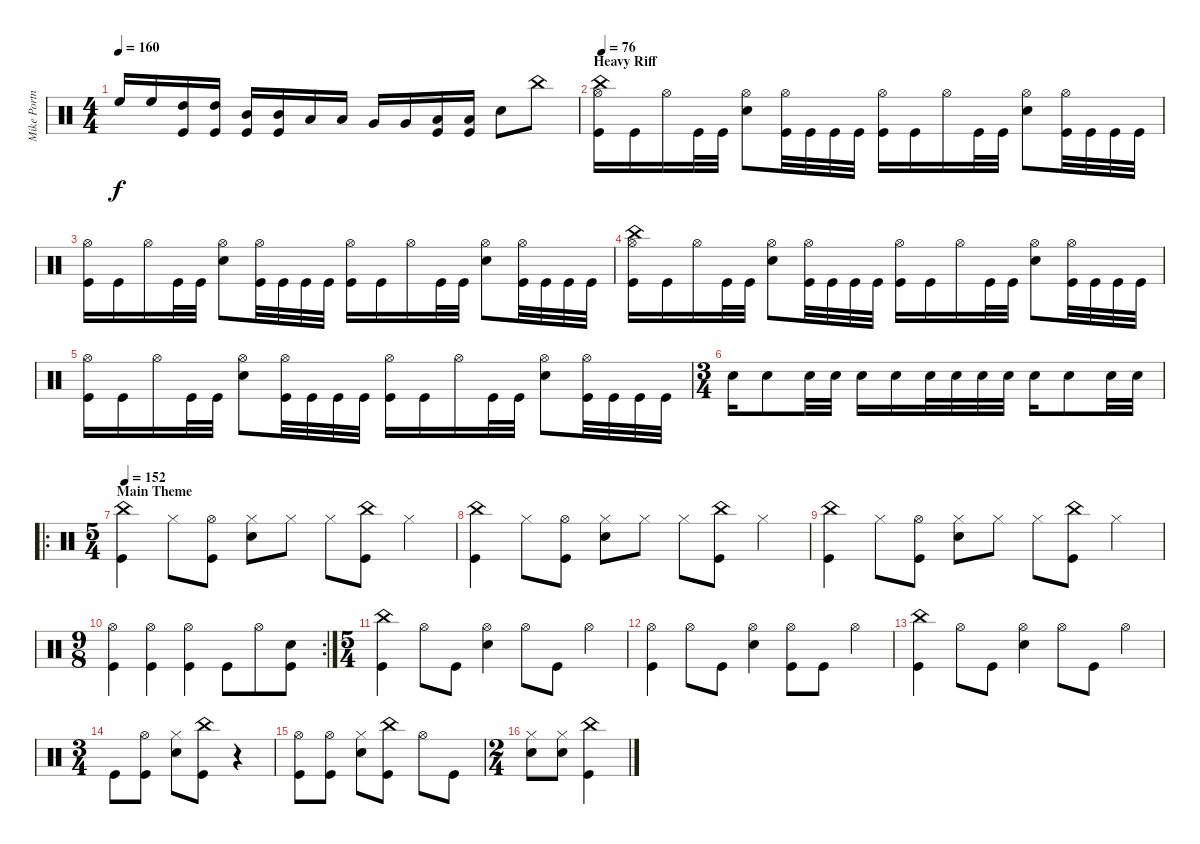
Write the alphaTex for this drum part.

\track ("Mike Portnoy (Drums)" "Mike Portn") {instrument percussion}
\staff {score}
\articulation defaults
\ts (4 4)
\tempo 160
\clef neutral
\ks c "High Floor Tom (hit)".16{dy f} "High Floor Tom (hit)".16
("High Tom (hit)" "Kick (hit)").16 ("High Tom (hit)" "Kick (hit)").16 ("Mid Tom (hit)" "Kick (hit)").16 ("Mid Tom (hit)" "Kick (hit)").16 "Low Tom (hit)".16 "Low Tom (hit)".16 "Very Low Tom (hit)".16 "Very Low Tom (hit)".16 ("Kick (hit)" "Low Floor Tom (hit)").16 ("Kick (hit)" "Low Floor Tom (hit)").16 "Snare (hit) 2".8 "China (hit)".8 |
\section ("" "Heavy Riff")
\tempo 76
("Kick (hit)" "Hi-Hat (open)" "China (hit)").16 "Kick (hit)".16 "Hi-Hat (open)".16 "Kick (hit)".32 "Kick (hit)".32 ("Snare (hit) 2" "Hi-Hat (open)").8 ("Kick (hit)" "Hi-Hat (open)").32 "Kick (hit)".32 "Kick (hit)".32 "Kick (hit)".32 ("Kick (hit)" "Hi-Hat (open)").16 "Kick (hit)".16 "Hi-Hat (open)".16 "Kick (hit)".32 "Kick (hit)".32 ("Snare (hit) 2" "Hi-Hat (open)").8 ("Kick (hit)" "Hi-Hat (open)").32 "Kick (hit)".32 "Kick (hit)".32 "Kick (hit)".32 |
("Kick (hit)" "Hi-Hat (open)").16 "Kick (hit)".16 "Hi-Hat (open)".16 "Kick (hit)".32 "Kick (hit)".32 ("Snare (hit) 2" "Hi-Hat (open)").8 ("Kick (hit)" "Hi-Hat (open)").32 "Kick (hit)".32 "Kick (hit)".32 "Kick (hit)".32 ("Kick (hit)" "Hi-Hat (open)").16 "Kick (hit)".16 "Hi-Hat (open)".16 "Kick (hit)".32 "Kick (hit)".32 ("Snare (hit) 2" "Hi-Hat (open)").8 ("Kick (hit)" "Hi-Hat (open)").32 "Kick (hit)".32 "Kick (hit)".32 "Kick (hit)".32 |
("Kick (hit)" "Hi-Hat (open)" "China (hit)").16 "Kick (hit)".16 "Hi-Hat (open)".16 "Kick (hit)".32 "Kick (hit)".32 ("Snare (hit) 2" "Hi-Hat (open)").8 ("Kick (hit)" "Hi-Hat (open)").32 "Kick (hit)".32 "Kick (hit)".32 "Kick (hit)".32 ("Kick (hit)" "Hi-Hat (open)").16 "Kick (hit)".16 "Hi-Hat (open)".16 "Kick (hit)".32 "Kick (hit)".32 ("Snare (hit) 2" "Hi-Hat (open)").8 ("Kick (hit)" "Hi-Hat (open)").32 "Kick (hit)".32 "Kick (hit)".32 "Kick (hit)".32 |
("Kick (hit)" "Hi-Hat (open)").16 "Kick (hit)".16 "Hi-Hat (open)".16 "Kick (hit)".32 "Kick (hit)".32 ("Snare (hit) 2" "Hi-Hat (open)").8 ("Kick (hit)" "Hi-Hat (open)").32 "Kick (hit)".32 "Kick (hit)".32 "Kick (hit)".32 ("Kick (hit)" "Hi-Hat (open)").16 "Kick (hit)".16 "Hi-Hat (open)".16 "Kick (hit)".32 "Kick (hit)".32 ("Snare (hit) 2" "Hi-Hat (open)").8 ("Kick (hit)" "Hi-Hat (open)").32 "Kick (hit)".32 "Kick (hit)".32 "Kick (hit)".32 |
\ts (3 4)
"Snare (hit) 2".16 "Snare (hit) 2".8 "Snare (hit) 2".32 "Snare (hit) 2".32 "Snare (hit) 2".16 "Snare (hit) 2".16 "Snare (hit) 2".32 "Snare (hit) 2".32 "Snare (hit) 2".32 "Snare (hit) 2".32 "Snare (hit) 2".16 "Snare (hit) 2".8 "Snare (hit) 2".32 "Snare (hit) 2".32 |
\ro
\ts (5 4)
\section ("" "Main Theme")
\tempo 152
("Kick (hit)" "China (hit)").4 "Hi-Hat (closed)".8 ("Kick (hit)" "Hi-Hat (open)").8 ("Snare (hit) 2" "Hi-Hat (closed)").8 "Hi-Hat (closed)".8 "Hi-Hat (closed)".8 ("Kick (hit)" "China (hit)").8 "Hi-Hat (closed)".4 |
("Kick (hit)" "China (hit)").4 "Hi-Hat (closed)".8 ("Kick (hit)" "Hi-Hat (open)").8 ("Snare (hit) 2" "Hi-Hat (closed)").8 "Hi-Hat (closed)".8 "Hi-Hat (closed)".8 ("Kick (hit)" "China (hit)").8 "Hi-Hat (closed)".4 |
("Kick (hit)" "China (hit)").4 "Hi-Hat (closed)".8 ("Kick (hit)" "Hi-Hat (open)").8 ("Snare (hit) 2" "Hi-Hat (closed)").8 "Hi-Hat (closed)".8 "Hi-Hat (closed)".8 ("Kick (hit)" "China (hit)").8 "Hi-Hat (closed)".4 |
\rc 2
\ts (9 8)
("Kick (hit)" "Hi-Hat (open)").4 ("Kick (hit)" "Hi-Hat (open)").4 ("Kick (hit)" "Hi-Hat (open)").4 "Kick (hit)".8 "Hi-Hat (open)".8 ("Kick (hit)" "Snare (hit) 2").8 |
\ts (5 4)
("Kick (hit)" "China (hit)").4 "Hi-Hat (open)".8 "Kick (hit)".8 ("Snare (hit) 2" "Hi-Hat (open)").4 "Hi-Hat (open)".8 "Kick (hit)".8 "Hi-Hat (open)".4 |
("Kick (hit)" "Hi-Hat (open)").4 "Hi-Hat (open)".8 "Kick (hit)".8 ("Snare (hit) 2" "Hi-Hat (open)").4 ("Kick (hit)" "Hi-Hat (open)").8 "Kick (hit)".8 "Hi-Hat (open)".4 |
("Kick (hit)" "China (hit)").4 "Hi-Hat (open)".8 "Kick (hit)".8 ("Snare (hit) 2" "Hi-Hat (open)").4 "Hi-Hat (open)".8 "Kick (hit)".8 "Hi-Hat (open)".4 |
\ts (3 4)
"Kick (hit)".8 ("Kick (hit)" "Hi-Hat (open)").8 ("Snare (hit) 2" "Hi-Hat (closed)").8 ("Kick (hit)" "China (hit)").8 r.4 |
("Kick (hit)" "Hi-Hat (open)").8 ("Kick (hit)" "Hi-Hat (open)").8 ("Snare (hit) 2" "Hi-Hat (closed)").8 ("Kick (hit)" "China (hit)").8 "Hi-Hat (open)".8 "Kick (hit)".8 |
\ts (2 4)
("Snare (hit) 2" "Hi-Hat (closed)").8 ("Snare (hit) 2" "Hi-Hat (closed)").8 ("Kick (hit)" "China (hit)").4
